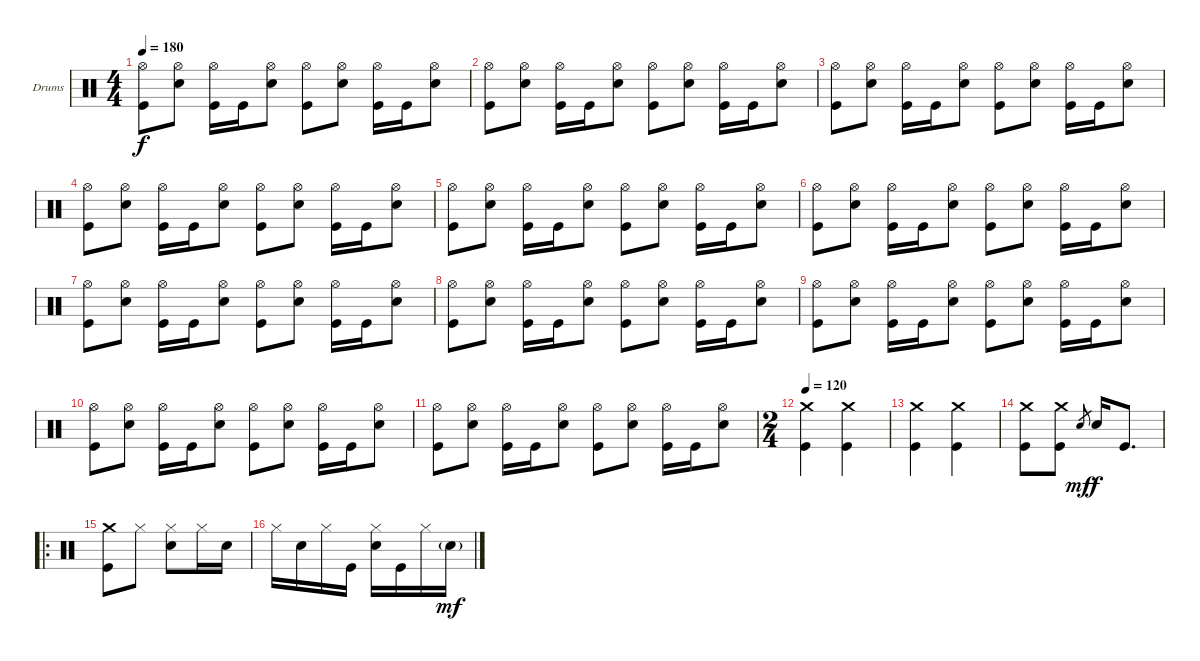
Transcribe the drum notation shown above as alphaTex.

\bracketExtendMode groupsimilarinstruments
\firstSystemTrackNameOrientation horizontal
\otherSystemsTrackNameOrientation horizontal
\track ("Drumkit" "Drums") {instrument percussion}
\staff {score}
\articulation defaults
\ts (4 4)
\tempo 180
\clef neutral
\ks c
("Hi-Hat (open)" "Kick (hit)").8{dy f} ("Hi-Hat (open)" "Snare (hit) 2").8 ("Hi-Hat (open)" "Kick (hit)").16 "Kick (hit)".16 ("Hi-Hat (open)" "Snare (hit) 2").8 ("Hi-Hat (open)" "Kick (hit)").8 ("Hi-Hat (open)" "Snare (hit) 2").8 ("Hi-Hat (open)" "Kick (hit)").16 "Kick (hit)".16 ("Hi-Hat (open)" "Snare (hit) 2").8 |
("Hi-Hat (open)" "Kick (hit)").8 ("Hi-Hat (open)" "Snare (hit) 2").8 ("Hi-Hat (open)" "Kick (hit)").16 "Kick (hit)".16 ("Hi-Hat (open)" "Snare (hit) 2").8 ("Hi-Hat (open)" "Kick (hit)").8 ("Hi-Hat (open)" "Snare (hit) 2").8 ("Hi-Hat (open)" "Kick (hit)").16 "Kick (hit)".16 ("Hi-Hat (open)" "Snare (hit) 2").8 |
("Hi-Hat (open)" "Kick (hit)").8 ("Hi-Hat (open)" "Snare (hit) 2").8 ("Hi-Hat (open)" "Kick (hit)").16 "Kick (hit)".16 ("Hi-Hat (open)" "Snare (hit) 2").8 ("Hi-Hat (open)" "Kick (hit)").8 ("Hi-Hat (open)" "Snare (hit) 2").8 ("Hi-Hat (open)" "Kick (hit)").16 "Kick (hit)".16 ("Hi-Hat (open)" "Snare (hit) 2").8 |
("Hi-Hat (open)" "Kick (hit)").8 ("Hi-Hat (open)" "Snare (hit) 2").8 ("Hi-Hat (open)" "Kick (hit)").16 "Kick (hit)".16 ("Hi-Hat (open)" "Snare (hit) 2").8 ("Hi-Hat (open)" "Kick (hit)").8 ("Hi-Hat (open)" "Snare (hit) 2").8 ("Hi-Hat (open)" "Kick (hit)").16 "Kick (hit)".16 ("Hi-Hat (open)" "Snare (hit) 2").8 |
("Hi-Hat (open)" "Kick (hit)").8 ("Hi-Hat (open)" "Snare (hit) 2").8 ("Hi-Hat (open)" "Kick (hit)").16 "Kick (hit)".16 ("Hi-Hat (open)" "Snare (hit) 2").8 ("Hi-Hat (open)" "Kick (hit)").8 ("Hi-Hat (open)" "Snare (hit) 2").8 ("Hi-Hat (open)" "Kick (hit)").16 "Kick (hit)".16 ("Hi-Hat (open)" "Snare (hit) 2").8 |
("Hi-Hat (open)" "Kick (hit)").8 ("Hi-Hat (open)" "Snare (hit) 2").8 ("Hi-Hat (open)" "Kick (hit)").16 "Kick (hit)".16 ("Hi-Hat (open)" "Snare (hit) 2").8 ("Hi-Hat (open)" "Kick (hit)").8 ("Hi-Hat (open)" "Snare (hit) 2").8 ("Hi-Hat (open)" "Kick (hit)").16 "Kick (hit)".16 ("Hi-Hat (open)" "Snare (hit) 2").8 |
("Hi-Hat (open)" "Kick (hit)").8 ("Hi-Hat (open)" "Snare (hit) 2").8 ("Hi-Hat (open)" "Kick (hit)").16 "Kick (hit)".16 ("Hi-Hat (open)" "Snare (hit) 2").8 ("Hi-Hat (open)" "Kick (hit)").8 ("Hi-Hat (open)" "Snare (hit) 2").8 ("Hi-Hat (open)" "Kick (hit)").16 "Kick (hit)".16 ("Hi-Hat (open)" "Snare (hit) 2").8 |
("Hi-Hat (open)" "Kick (hit)").8 ("Hi-Hat (open)" "Snare (hit) 2").8 ("Hi-Hat (open)" "Kick (hit)").16 "Kick (hit)".16 ("Hi-Hat (open)" "Snare (hit) 2").8 ("Hi-Hat (open)" "Kick (hit)").8 ("Hi-Hat (open)" "Snare (hit) 2").8 ("Hi-Hat (open)" "Kick (hit)").16 "Kick (hit)".16 ("Hi-Hat (open)" "Snare (hit) 2").8 |
("Hi-Hat (open)" "Kick (hit)").8 ("Hi-Hat (open)" "Snare (hit) 2").8 ("Hi-Hat (open)" "Kick (hit)").16 "Kick (hit)".16 ("Hi-Hat (open)" "Snare (hit) 2").8 ("Hi-Hat (open)" "Kick (hit)").8 ("Hi-Hat (open)" "Snare (hit) 2").8 ("Hi-Hat (open)" "Kick (hit)").16 "Kick (hit)".16 ("Hi-Hat (open)" "Snare (hit) 2").8 |
("Hi-Hat (open)" "Kick (hit)").8 ("Hi-Hat (open)" "Snare (hit) 2").8 ("Hi-Hat (open)" "Kick (hit)").16 "Kick (hit)".16 ("Hi-Hat (open)" "Snare (hit) 2").8 ("Hi-Hat (open)" "Kick (hit)").8 ("Hi-Hat (open)" "Snare (hit) 2").8 ("Hi-Hat (open)" "Kick (hit)").16 "Kick (hit)".16 ("Hi-Hat (open)" "Snare (hit) 2").8 |
("Hi-Hat (open)" "Kick (hit)").8 ("Hi-Hat (open)" "Snare (hit) 2").8 ("Hi-Hat (open)" "Kick (hit)").16 "Kick (hit)".16 ("Hi-Hat (open)" "Snare (hit) 2").8 ("Hi-Hat (open)" "Kick (hit)").8 ("Hi-Hat (open)" "Snare (hit) 2").8 ("Hi-Hat (open)" "Kick (hit)").16 "Kick (hit)".16 ("Hi-Hat (open)" "Snare (hit) 2").8 |
\ts (2 4)
\beaming (8 2 2)
\tempo 120
("Crash medium (hit)" "Kick (hit)").4 ("Crash medium (hit)" "Kick (hit)").4 |
("Crash medium (hit)" "Kick (hit)").4 ("Crash medium (hit)" "Kick (hit)").4 |
("Crash medium (hit)" "Kick (hit)").8 ("Crash medium (hit)" "Kick (hit)").8 "Snare (hit) 2".8{gr dy mf} "Snare (hit) 2".16{dy f} "Kick (hit)".8{d} |
\ro
("Crash medium (hit)" "Kick (hit)").8 "Hi-Hat (closed)".8 ("Hi-Hat (closed)" "Snare (hit) 2").8 "Hi-Hat (closed)".16 "Snare (hit) 2".16 |
"Hi-Hat (closed)".16 "Snare (hit) 2".16 "Hi-Hat (closed)".16 "Kick (hit)".16 ("Hi-Hat (closed)" "Snare (hit) 2").16 "Kick (hit)".16 "Hi-Hat (closed)".16 "Snare (hit) 2"{g}.16{dy mf}
